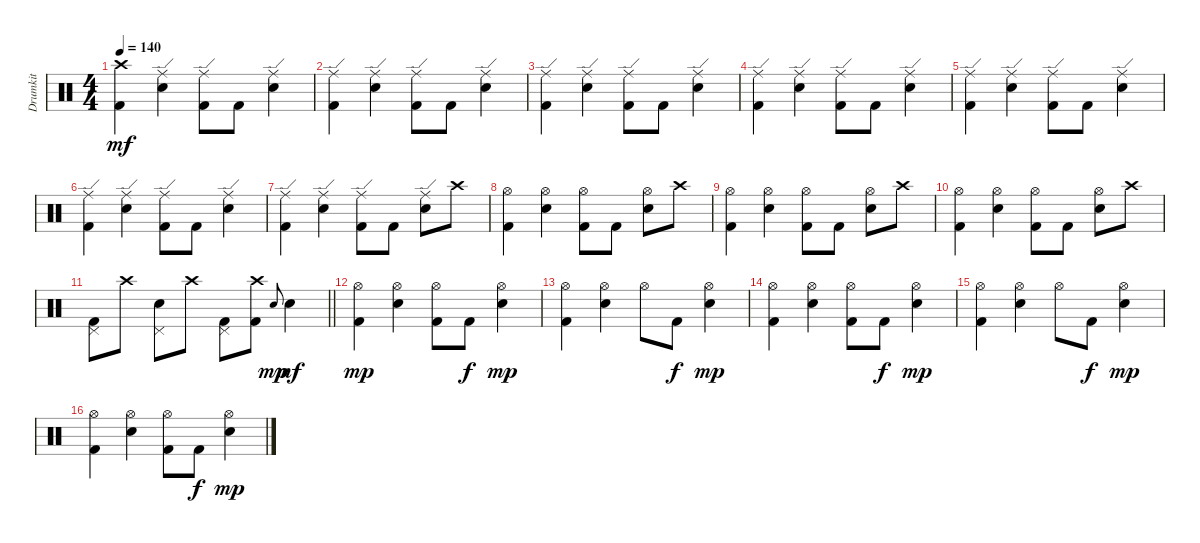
\track ("Drumkit" "Drumkit") {instrument percussion}
\staff {score}
\articulation defaults
\ts (4 4)
\tempo 140
\clef neutral
\ks c
("Crash high (hit)" "Kick (hit) 2").4{dy mf} ("Ride (edge)" "Snare (hit) 2").4 ("Ride (edge)" "Kick (hit) 2").8 "Kick (hit) 2".8 ("Ride (edge)" "Snare (hit) 2").4 |
("Ride (edge)" "Kick (hit) 2").4 ("Ride (edge)" "Snare (hit) 2").4 ("Ride (edge)" "Kick (hit) 2").8 "Kick (hit) 2".8 ("Ride (edge)" "Snare (hit) 2").4 |
("Ride (edge)" "Kick (hit) 2").4 ("Ride (edge)" "Snare (hit) 2").4 ("Ride (edge)" "Kick (hit) 2").8 "Kick (hit) 2".8 ("Ride (edge)" "Snare (hit) 2").4 |
("Ride (edge)" "Kick (hit) 2").4 ("Ride (edge)" "Snare (hit) 2").4 ("Ride (edge)" "Kick (hit) 2").8 "Kick (hit) 2".8 ("Ride (edge)" "Snare (hit) 2").4 |
("Ride (edge)" "Kick (hit) 2").4 ("Ride (edge)" "Snare (hit) 2").4 ("Ride (edge)" "Kick (hit) 2").8 "Kick (hit) 2".8 ("Ride (edge)" "Snare (hit) 2").4 |
("Ride (edge)" "Kick (hit) 2").4 ("Ride (edge)" "Snare (hit) 2").4 ("Ride (edge)" "Kick (hit) 2").8 "Kick (hit) 2".8 ("Ride (edge)" "Snare (hit) 2").4 |
("Ride (edge)" "Kick (hit) 2").4 ("Ride (edge)" "Snare (hit) 2").4 ("Ride (edge)" "Kick (hit) 2").8 "Kick (hit) 2".8 ("Ride (edge)" "Snare (hit) 2").8 "Crash high (hit)".8 |
("Hi-Hat (open)" "Kick (hit) 2").4 ("Hi-Hat (open)" "Snare (hit) 2").4 ("Hi-Hat (open)" "Kick (hit) 2").8 "Kick (hit) 2".8 ("Hi-Hat (open)" "Snare (hit) 2").8 "Crash high (hit)".8 |
("Hi-Hat (open)" "Kick (hit) 2").4 ("Hi-Hat (open)" "Snare (hit) 2").4 ("Hi-Hat (open)" "Kick (hit) 2").8 "Kick (hit) 2".8 ("Hi-Hat (open)" "Snare (hit) 2").8 "Crash high (hit)".8 |
("Hi-Hat (open)" "Kick (hit) 2").4 ("Hi-Hat (open)" "Snare (hit) 2").4 ("Hi-Hat (open)" "Kick (hit) 2").8 "Kick (hit) 2".8 ("Hi-Hat (open)" "Snare (hit) 2").8 "Crash high (hit)".8 |
\barLineRight lightlight
("Pedal Hi-Hat (hit)" "Kick (hit) 2").8 "Crash high (hit)".8 ("Pedal Hi-Hat (hit)" "Snare (hit) 2").8 "Crash high (hit)".8 ("Pedal Hi-Hat (hit)" "Kick (hit) 2").8 ("Crash high (hit)" "Kick (hit) 2").8 "Snare (hit)".8{gr onbeat dy mp} "Snare (hit) 2".4{dy mf} |
("Hi-Hat (open)" "Kick (hit) 2").4{dy mp} ("Hi-Hat (open)" "Snare (hit) 2").4 ("Hi-Hat (open)" "Kick (hit) 2").8 "Kick (hit) 2".8{dy f} ("Hi-Hat (open)" "Snare (hit) 2").4{dy mp} |
("Hi-Hat (open)" "Kick (hit) 2").4 ("Hi-Hat (open)" "Snare (hit) 2").4 "Hi-Hat (open)".8 "Kick (hit) 2".8{dy f} ("Hi-Hat (open)" "Snare (hit) 2").4{dy mp} |
("Hi-Hat (open)" "Kick (hit) 2").4 ("Hi-Hat (open)" "Snare (hit) 2").4 ("Hi-Hat (open)" "Kick (hit) 2").8 "Kick (hit) 2".8{dy f} ("Hi-Hat (open)" "Snare (hit) 2").4{dy mp} |
("Hi-Hat (open)" "Kick (hit) 2").4 ("Hi-Hat (open)" "Snare (hit) 2").4 "Hi-Hat (open)".8 "Kick (hit) 2".8{dy f} ("Hi-Hat (open)" "Snare (hit) 2").4{dy mp} |
("Hi-Hat (open)" "Kick (hit) 2").4 ("Hi-Hat (open)" "Snare (hit) 2").4 ("Hi-Hat (open)" "Kick (hit) 2").8 "Kick (hit) 2".8{dy f} ("Hi-Hat (open)" "Snare (hit) 2").4{dy mp}
